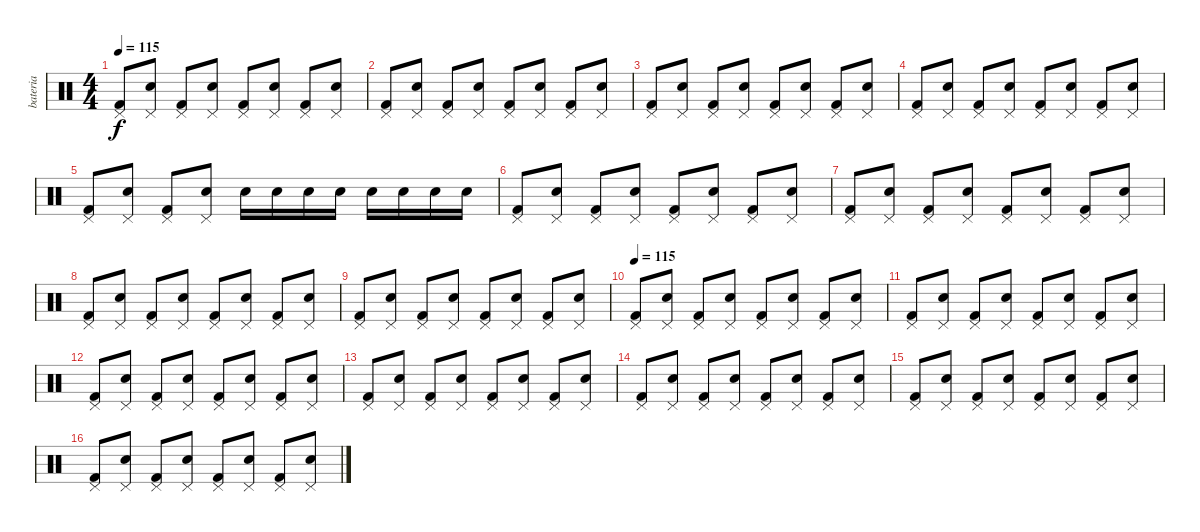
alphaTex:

\track ("bateria" "bateria") {instrument percussion}
\staff {score}
\articulation defaults
\ts (4 4)
\tempo 115
\clef neutral
\ks c
("Pedal Hi-Hat (hit)" "Kick (hit) 2").8{dy f} ("Pedal Hi-Hat (hit)" "Snare (hit) 2").8 ("Pedal Hi-Hat (hit)" "Kick (hit) 2").8 ("Pedal Hi-Hat (hit)" "Snare (hit) 2").8 ("Pedal Hi-Hat (hit)" "Kick (hit) 2").8 ("Pedal Hi-Hat (hit)" "Snare (hit) 2").8 ("Pedal Hi-Hat (hit)" "Kick (hit) 2").8 ("Pedal Hi-Hat (hit)" "Snare (hit) 2").8 |
("Pedal Hi-Hat (hit)" "Kick (hit) 2").8 ("Pedal Hi-Hat (hit)" "Snare (hit) 2").8 ("Pedal Hi-Hat (hit)" "Kick (hit) 2").8 ("Pedal Hi-Hat (hit)" "Snare (hit) 2").8 ("Pedal Hi-Hat (hit)" "Kick (hit) 2").8 ("Pedal Hi-Hat (hit)" "Snare (hit) 2").8 ("Pedal Hi-Hat (hit)" "Kick (hit) 2").8 ("Pedal Hi-Hat (hit)" "Snare (hit) 2").8 |
("Pedal Hi-Hat (hit)" "Kick (hit) 2").8 ("Pedal Hi-Hat (hit)" "Snare (hit) 2").8 ("Pedal Hi-Hat (hit)" "Kick (hit) 2").8 ("Pedal Hi-Hat (hit)" "Snare (hit) 2").8 ("Pedal Hi-Hat (hit)" "Kick (hit) 2").8 ("Pedal Hi-Hat (hit)" "Snare (hit) 2").8 ("Pedal Hi-Hat (hit)" "Kick (hit) 2").8 ("Pedal Hi-Hat (hit)" "Snare (hit) 2").8 |
("Pedal Hi-Hat (hit)" "Kick (hit) 2").8 ("Pedal Hi-Hat (hit)" "Snare (hit) 2").8 ("Pedal Hi-Hat (hit)" "Kick (hit) 2").8 ("Pedal Hi-Hat (hit)" "Snare (hit) 2").8 ("Pedal Hi-Hat (hit)" "Kick (hit) 2").8 ("Pedal Hi-Hat (hit)" "Snare (hit) 2").8 ("Pedal Hi-Hat (hit)" "Kick (hit) 2").8 ("Pedal Hi-Hat (hit)" "Snare (hit) 2").8 |
("Pedal Hi-Hat (hit)" "Kick (hit) 2").8 ("Pedal Hi-Hat (hit)" "Snare (hit) 2").8 ("Pedal Hi-Hat (hit)" "Kick (hit) 2").8 ("Pedal Hi-Hat (hit)" "Snare (hit) 2").8 "Snare (hit) 2".16 "Snare (hit) 2".16 "Snare (hit) 2".16 "Snare (hit) 2".16 "Snare (hit) 2".16 "Snare (hit) 2".16 "Snare (hit) 2".16 "Snare (hit) 2".16 |
("Pedal Hi-Hat (hit)" "Kick (hit) 2").8 ("Pedal Hi-Hat (hit)" "Snare (hit) 2").8 ("Pedal Hi-Hat (hit)" "Kick (hit) 2").8 ("Pedal Hi-Hat (hit)" "Snare (hit) 2").8 ("Pedal Hi-Hat (hit)" "Kick (hit) 2").8 ("Pedal Hi-Hat (hit)" "Snare (hit) 2").8 ("Pedal Hi-Hat (hit)" "Kick (hit) 2").8 ("Pedal Hi-Hat (hit)" "Snare (hit) 2").8 |
("Pedal Hi-Hat (hit)" "Kick (hit) 2").8 ("Pedal Hi-Hat (hit)" "Snare (hit) 2").8 ("Pedal Hi-Hat (hit)" "Kick (hit) 2").8 ("Pedal Hi-Hat (hit)" "Snare (hit) 2").8 ("Pedal Hi-Hat (hit)" "Kick (hit) 2").8 ("Pedal Hi-Hat (hit)" "Snare (hit) 2").8 ("Pedal Hi-Hat (hit)" "Kick (hit) 2").8 ("Pedal Hi-Hat (hit)" "Snare (hit) 2").8 |
("Pedal Hi-Hat (hit)" "Kick (hit) 2").8 ("Pedal Hi-Hat (hit)" "Snare (hit) 2").8 ("Pedal Hi-Hat (hit)" "Kick (hit) 2").8 ("Pedal Hi-Hat (hit)" "Snare (hit) 2").8 ("Pedal Hi-Hat (hit)" "Kick (hit) 2").8 ("Pedal Hi-Hat (hit)" "Snare (hit) 2").8 ("Pedal Hi-Hat (hit)" "Kick (hit) 2").8 ("Pedal Hi-Hat (hit)" "Snare (hit) 2").8 |
("Pedal Hi-Hat (hit)" "Kick (hit) 2").8 ("Pedal Hi-Hat (hit)" "Snare (hit) 2").8 ("Pedal Hi-Hat (hit)" "Kick (hit) 2").8 ("Pedal Hi-Hat (hit)" "Snare (hit) 2").8 ("Pedal Hi-Hat (hit)" "Kick (hit) 2").8 ("Pedal Hi-Hat (hit)" "Snare (hit) 2").8 ("Pedal Hi-Hat (hit)" "Kick (hit) 2").8 ("Pedal Hi-Hat (hit)" "Snare (hit) 2").8 |
\section ("" "")
\tempo 115
("Pedal Hi-Hat (hit)" "Kick (hit) 2").8 ("Pedal Hi-Hat (hit)" "Snare (hit) 2").8 ("Pedal Hi-Hat (hit)" "Kick (hit) 2").8 ("Pedal Hi-Hat (hit)" "Snare (hit) 2").8 ("Pedal Hi-Hat (hit)" "Kick (hit) 2").8 ("Pedal Hi-Hat (hit)" "Snare (hit) 2").8 ("Pedal Hi-Hat (hit)" "Kick (hit) 2").8 ("Pedal Hi-Hat (hit)" "Snare (hit) 2").8 |
("Pedal Hi-Hat (hit)" "Kick (hit) 2").8 ("Pedal Hi-Hat (hit)" "Snare (hit) 2").8 ("Pedal Hi-Hat (hit)" "Kick (hit) 2").8 ("Pedal Hi-Hat (hit)" "Snare (hit) 2").8 ("Pedal Hi-Hat (hit)" "Kick (hit) 2").8 ("Pedal Hi-Hat (hit)" "Snare (hit) 2").8 ("Pedal Hi-Hat (hit)" "Kick (hit) 2").8 ("Pedal Hi-Hat (hit)" "Snare (hit) 2").8 |
("Pedal Hi-Hat (hit)" "Kick (hit) 2").8 ("Pedal Hi-Hat (hit)" "Snare (hit) 2").8 ("Pedal Hi-Hat (hit)" "Kick (hit) 2").8 ("Pedal Hi-Hat (hit)" "Snare (hit) 2").8 ("Pedal Hi-Hat (hit)" "Kick (hit) 2").8 ("Pedal Hi-Hat (hit)" "Snare (hit) 2").8 ("Pedal Hi-Hat (hit)" "Kick (hit) 2").8 ("Pedal Hi-Hat (hit)" "Snare (hit) 2").8 |
("Pedal Hi-Hat (hit)" "Kick (hit) 2").8 ("Pedal Hi-Hat (hit)" "Snare (hit) 2").8 ("Pedal Hi-Hat (hit)" "Kick (hit) 2").8 ("Pedal Hi-Hat (hit)" "Snare (hit) 2").8 ("Pedal Hi-Hat (hit)" "Kick (hit) 2").8 ("Pedal Hi-Hat (hit)" "Snare (hit) 2").8 ("Pedal Hi-Hat (hit)" "Kick (hit) 2").8 ("Pedal Hi-Hat (hit)" "Snare (hit) 2").8 |
("Pedal Hi-Hat (hit)" "Kick (hit) 2").8 ("Pedal Hi-Hat (hit)" "Snare (hit) 2").8 ("Pedal Hi-Hat (hit)" "Kick (hit) 2").8 ("Pedal Hi-Hat (hit)" "Snare (hit) 2").8 ("Pedal Hi-Hat (hit)" "Kick (hit) 2").8 ("Pedal Hi-Hat (hit)" "Snare (hit) 2").8 ("Pedal Hi-Hat (hit)" "Kick (hit) 2").8 ("Pedal Hi-Hat (hit)" "Snare (hit) 2").8 |
("Pedal Hi-Hat (hit)" "Kick (hit) 2").8 ("Pedal Hi-Hat (hit)" "Snare (hit) 2").8 ("Pedal Hi-Hat (hit)" "Kick (hit) 2").8 ("Pedal Hi-Hat (hit)" "Snare (hit) 2").8 ("Pedal Hi-Hat (hit)" "Kick (hit) 2").8 ("Pedal Hi-Hat (hit)" "Snare (hit) 2").8 ("Pedal Hi-Hat (hit)" "Kick (hit) 2").8 ("Pedal Hi-Hat (hit)" "Snare (hit) 2").8 |
("Pedal Hi-Hat (hit)" "Kick (hit) 2").8 ("Pedal Hi-Hat (hit)" "Snare (hit) 2").8 ("Pedal Hi-Hat (hit)" "Kick (hit) 2").8 ("Pedal Hi-Hat (hit)" "Snare (hit) 2").8 ("Pedal Hi-Hat (hit)" "Kick (hit) 2").8 ("Pedal Hi-Hat (hit)" "Snare (hit) 2").8 ("Pedal Hi-Hat (hit)" "Kick (hit) 2").8 ("Pedal Hi-Hat (hit)" "Snare (hit) 2").8
